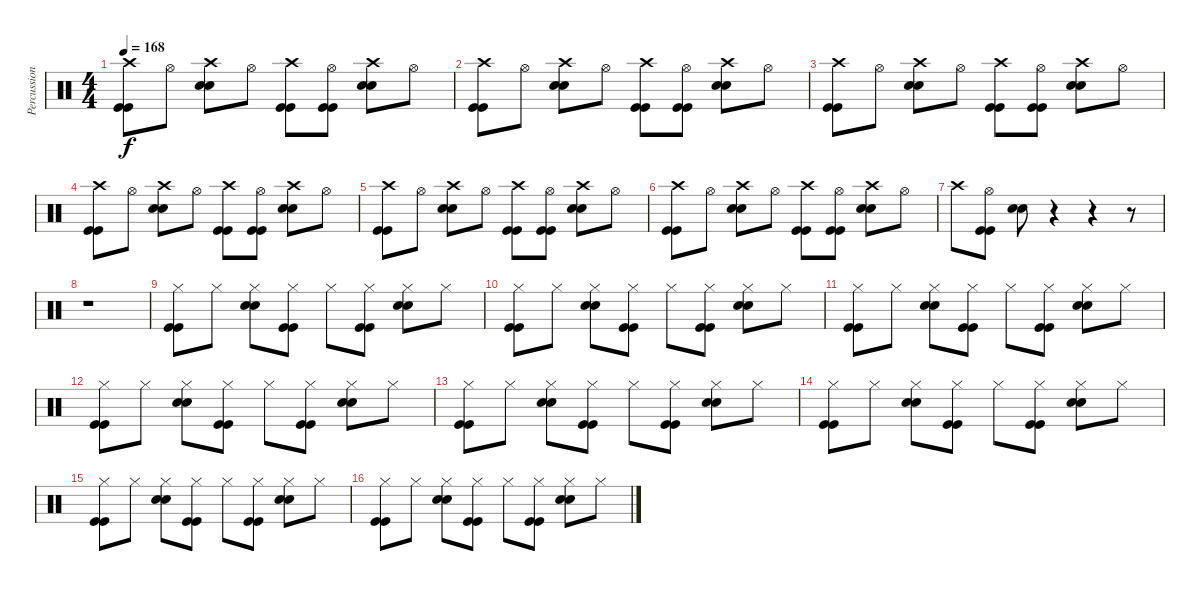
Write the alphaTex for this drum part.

\track ("Percussion" "Percussion") {instrument percussion}
\staff {score}
\articulation defaults
\ts (4 4)
\tempo 168
\clef neutral
\ks c
("Crash high (hit)" "Kick (hit)" "Kick (hit)").8{dy f} "Hi-Hat (open)".8 ("Crash high (hit)" "Snare (hit) 2" "Snare (hit) 2").8 "Hi-Hat (open)".8 ("Crash high (hit)" "Kick (hit)" "Kick (hit)").8 ("Hi-Hat (open)" "Kick (hit)" "Kick (hit)").8 ("Crash high (hit)" "Snare (hit) 2" "Snare (hit) 2").8 "Hi-Hat (open)".8 |
("Crash high (hit)" "Kick (hit)" "Kick (hit)").8 "Hi-Hat (open)".8 ("Crash high (hit)" "Snare (hit) 2" "Snare (hit) 2").8 "Hi-Hat (open)".8 ("Crash high (hit)" "Kick (hit)" "Kick (hit)").8 ("Hi-Hat (open)" "Kick (hit)" "Kick (hit)").8 ("Crash high (hit)" "Snare (hit) 2" "Snare (hit) 2").8 "Hi-Hat (open)".8 |
("Crash high (hit)" "Kick (hit)" "Kick (hit)").8 "Hi-Hat (open)".8 ("Crash high (hit)" "Snare (hit) 2" "Snare (hit) 2").8 "Hi-Hat (open)".8 ("Crash high (hit)" "Kick (hit)" "Kick (hit)").8 ("Hi-Hat (open)" "Kick (hit)" "Kick (hit)").8 ("Crash high (hit)" "Snare (hit) 2" "Snare (hit) 2").8 "Hi-Hat (open)".8 |
("Crash high (hit)" "Kick (hit)" "Kick (hit)").8 "Hi-Hat (open)".8 ("Crash high (hit)" "Snare (hit) 2" "Snare (hit) 2").8 "Hi-Hat (open)".8 ("Crash high (hit)" "Kick (hit)" "Kick (hit)").8 ("Hi-Hat (open)" "Kick (hit)" "Kick (hit)").8 ("Crash high (hit)" "Snare (hit) 2" "Snare (hit) 2").8 "Hi-Hat (open)".8 |
("Crash high (hit)" "Kick (hit)" "Kick (hit)").8 "Hi-Hat (open)".8 ("Crash high (hit)" "Snare (hit) 2" "Snare (hit) 2").8 "Hi-Hat (open)".8 ("Crash high (hit)" "Kick (hit)" "Kick (hit)").8 ("Hi-Hat (open)" "Kick (hit)" "Kick (hit)").8 ("Crash high (hit)" "Snare (hit) 2" "Snare (hit) 2").8 "Hi-Hat (open)".8 |
("Crash high (hit)" "Kick (hit)" "Kick (hit)").8 "Hi-Hat (open)".8 ("Crash high (hit)" "Snare (hit) 2" "Snare (hit) 2").8 "Hi-Hat (open)".8 ("Crash high (hit)" "Kick (hit)" "Kick (hit)").8 ("Hi-Hat (open)" "Kick (hit)" "Kick (hit)").8 ("Crash high (hit)" "Snare (hit) 2" "Snare (hit) 2").8 "Hi-Hat (open)".8 |
"Crash high (hit)".8 ("Hi-Hat (open)" "Kick (hit)" "Kick (hit)").8 ("Snare (hit) 2" "Snare (hit) 2").8 r.4 r.4 r.8 |
r.1 |
("Kick (hit)" "Hi-Hat (closed)" "Kick (hit)").8 "Hi-Hat (closed)".8 ("Snare (hit) 2" "Hi-Hat (closed)" "Snare (hit) 2").8 ("Kick (hit)" "Hi-Hat (closed)" "Kick (hit)").8 "Hi-Hat (closed)".8 ("Kick (hit)" "Hi-Hat (closed)" "Kick (hit)").8 ("Snare (hit) 2" "Hi-Hat (closed)" "Snare (hit) 2").8 "Hi-Hat (closed)".8 |
("Kick (hit)" "Hi-Hat (closed)" "Kick (hit)").8 "Hi-Hat (closed)".8 ("Snare (hit) 2" "Hi-Hat (closed)" "Snare (hit) 2").8 ("Kick (hit)" "Hi-Hat (closed)" "Kick (hit)").8 "Hi-Hat (closed)".8 ("Kick (hit)" "Hi-Hat (closed)" "Kick (hit)").8 ("Snare (hit) 2" "Hi-Hat (closed)" "Snare (hit) 2").8 "Hi-Hat (closed)".8 |
("Kick (hit)" "Hi-Hat (closed)" "Kick (hit)").8 "Hi-Hat (closed)".8 ("Snare (hit) 2" "Hi-Hat (closed)" "Snare (hit) 2").8 ("Kick (hit)" "Hi-Hat (closed)" "Kick (hit)").8 "Hi-Hat (closed)".8 ("Kick (hit)" "Hi-Hat (closed)" "Kick (hit)").8 ("Snare (hit) 2" "Hi-Hat (closed)" "Snare (hit) 2").8 "Hi-Hat (closed)".8 |
("Kick (hit)" "Hi-Hat (closed)" "Kick (hit)").8 "Hi-Hat (closed)".8 ("Snare (hit) 2" "Hi-Hat (closed)" "Snare (hit) 2").8 ("Kick (hit)" "Hi-Hat (closed)" "Kick (hit)").8 "Hi-Hat (closed)".8 ("Kick (hit)" "Hi-Hat (closed)" "Kick (hit)").8 ("Snare (hit) 2" "Hi-Hat (closed)" "Snare (hit) 2").8 "Hi-Hat (closed)".8 |
("Kick (hit)" "Hi-Hat (closed)" "Kick (hit)").8 "Hi-Hat (closed)".8 ("Snare (hit) 2" "Hi-Hat (closed)" "Snare (hit) 2").8 ("Kick (hit)" "Hi-Hat (closed)" "Kick (hit)").8 "Hi-Hat (closed)".8 ("Kick (hit)" "Hi-Hat (closed)" "Kick (hit)").8 ("Snare (hit) 2" "Hi-Hat (closed)" "Snare (hit) 2").8 "Hi-Hat (closed)".8 |
("Kick (hit)" "Hi-Hat (closed)" "Kick (hit)").8 "Hi-Hat (closed)".8 ("Snare (hit) 2" "Hi-Hat (closed)" "Snare (hit) 2").8 ("Kick (hit)" "Hi-Hat (closed)" "Kick (hit)").8 "Hi-Hat (closed)".8 ("Kick (hit)" "Hi-Hat (closed)" "Kick (hit)").8 ("Snare (hit) 2" "Hi-Hat (closed)" "Snare (hit) 2").8 "Hi-Hat (closed)".8 |
("Kick (hit)" "Hi-Hat (closed)" "Kick (hit)").8 "Hi-Hat (closed)".8 ("Snare (hit) 2" "Hi-Hat (closed)" "Snare (hit) 2").8 ("Kick (hit)" "Hi-Hat (closed)" "Kick (hit)").8 "Hi-Hat (closed)".8 ("Kick (hit)" "Hi-Hat (closed)" "Kick (hit)").8 ("Snare (hit) 2" "Hi-Hat (closed)" "Snare (hit) 2").8 "Hi-Hat (closed)".8 |
("Kick (hit)" "Hi-Hat (closed)" "Kick (hit)").8 "Hi-Hat (closed)".8 ("Snare (hit) 2" "Hi-Hat (closed)" "Snare (hit) 2").8 ("Kick (hit)" "Hi-Hat (closed)" "Kick (hit)").8 "Hi-Hat (closed)".8 ("Kick (hit)" "Hi-Hat (closed)" "Kick (hit)").8 ("Snare (hit) 2" "Hi-Hat (closed)" "Snare (hit) 2").8 "Hi-Hat (closed)".8
